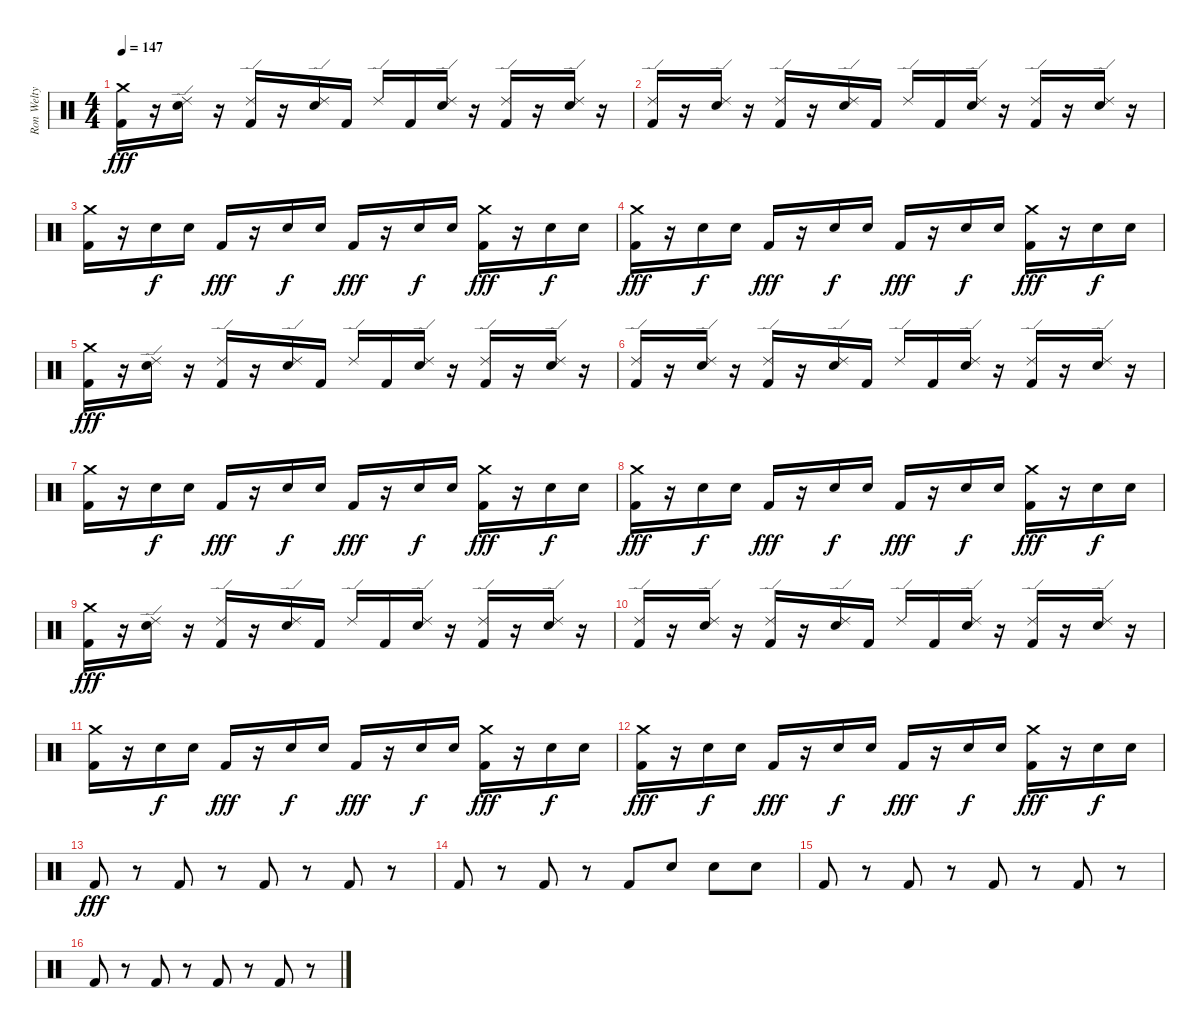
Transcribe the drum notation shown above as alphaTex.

\track ("Ron Welty" "Ron Welty") {instrument percussion}
\staff {score}
\articulation defaults
\ts (4 4)
\tempo 147
\clef neutral
\ks c
("Kick (hit) 2" "Crash medium (hit)").16{dy fff} r.16 ("Snare (hit) 2" "Ride (edge) 2").16 r.16 ("Kick (hit) 2" "Ride (edge) 2").16 r.16 ("Snare (hit) 2" "Ride (edge) 2").16 "Kick (hit) 2".16 "Ride (edge) 2".16 "Kick (hit) 2".16 ("Snare (hit) 2" "Ride (edge) 2").16 r.16 ("Kick (hit) 2" "Ride (edge) 2").16 r.16 ("Snare (hit) 2" "Ride (edge) 2").16 r.16 |
("Kick (hit) 2" "Ride (edge) 2").16 r.16 ("Snare (hit) 2" "Ride (edge) 2").16 r.16 ("Kick (hit) 2" "Ride (edge) 2").16 r.16 ("Snare (hit) 2" "Ride (edge) 2").16 "Kick (hit) 2".16 "Ride (edge) 2".16 "Kick (hit) 2".16 ("Snare (hit) 2" "Ride (edge) 2").16 r.16 ("Kick (hit) 2" "Ride (edge) 2").16 r.16 ("Snare (hit) 2" "Ride (edge) 2").16 r.16 |
("Kick (hit) 2" "Crash medium (hit)").16 r.16 "Snare (hit) 2".16{dy f} "Snare (hit) 2".16 "Kick (hit) 2".16{dy fff} r.16 "Snare (hit) 2".16{dy f} "Snare (hit) 2".16 "Kick (hit) 2".16{dy fff} r.16 "Snare (hit) 2".16{dy f} "Snare (hit) 2".16 ("Kick (hit) 2" "Crash medium (hit)").16{dy fff} r.16 "Snare (hit) 2".16{dy f} "Snare (hit) 2".16 |
("Kick (hit) 2" "Crash medium (hit)").16{dy fff} r.16 "Snare (hit) 2".16{dy f} "Snare (hit) 2".16 "Kick (hit) 2".16{dy fff} r.16 "Snare (hit) 2".16{dy f} "Snare (hit) 2".16 "Kick (hit) 2".16{dy fff} r.16 "Snare (hit) 2".16{dy f} "Snare (hit) 2".16 ("Kick (hit) 2" "Crash medium (hit)").16{dy fff} r.16 "Snare (hit) 2".16{dy f} "Snare (hit) 2".16 |
("Kick (hit) 2" "Crash medium (hit)").16{dy fff} r.16 ("Snare (hit) 2" "Ride (edge) 2").16 r.16 ("Kick (hit) 2" "Ride (edge) 2").16 r.16 ("Snare (hit) 2" "Ride (edge) 2").16 "Kick (hit) 2".16 "Ride (edge) 2".16 "Kick (hit) 2".16 ("Snare (hit) 2" "Ride (edge) 2").16 r.16 ("Kick (hit) 2" "Ride (edge) 2").16 r.16 ("Snare (hit) 2" "Ride (edge) 2").16 r.16 |
("Kick (hit) 2" "Ride (edge) 2").16 r.16 ("Snare (hit) 2" "Ride (edge) 2").16 r.16 ("Kick (hit) 2" "Ride (edge) 2").16 r.16 ("Snare (hit) 2" "Ride (edge) 2").16 "Kick (hit) 2".16 "Ride (edge) 2".16 "Kick (hit) 2".16 ("Snare (hit) 2" "Ride (edge) 2").16 r.16 ("Kick (hit) 2" "Ride (edge) 2").16 r.16 ("Snare (hit) 2" "Ride (edge) 2").16 r.16 |
("Kick (hit) 2" "Crash medium (hit)").16 r.16 "Snare (hit) 2".16{dy f} "Snare (hit) 2".16 "Kick (hit) 2".16{dy fff} r.16 "Snare (hit) 2".16{dy f} "Snare (hit) 2".16 "Kick (hit) 2".16{dy fff} r.16 "Snare (hit) 2".16{dy f} "Snare (hit) 2".16 ("Kick (hit) 2" "Crash medium (hit)").16{dy fff} r.16 "Snare (hit) 2".16{dy f} "Snare (hit) 2".16 |
("Kick (hit) 2" "Crash medium (hit)").16{dy fff} r.16 "Snare (hit) 2".16{dy f} "Snare (hit) 2".16 "Kick (hit) 2".16{dy fff} r.16 "Snare (hit) 2".16{dy f} "Snare (hit) 2".16 "Kick (hit) 2".16{dy fff} r.16 "Snare (hit) 2".16{dy f} "Snare (hit) 2".16 ("Kick (hit) 2" "Crash medium (hit)").16{dy fff} r.16 "Snare (hit) 2".16{dy f} "Snare (hit) 2".16 |
("Kick (hit) 2" "Crash medium (hit)").16{dy fff} r.16 ("Snare (hit) 2" "Ride (edge) 2").16 r.16 ("Kick (hit) 2" "Ride (edge) 2").16 r.16 ("Snare (hit) 2" "Ride (edge) 2").16 "Kick (hit) 2".16 "Ride (edge) 2".16 "Kick (hit) 2".16 ("Snare (hit) 2" "Ride (edge) 2").16 r.16 ("Kick (hit) 2" "Ride (edge) 2").16 r.16 ("Snare (hit) 2" "Ride (edge) 2").16 r.16 |
("Kick (hit) 2" "Ride (edge) 2").16 r.16 ("Snare (hit) 2" "Ride (edge) 2").16 r.16 ("Kick (hit) 2" "Ride (edge) 2").16 r.16 ("Snare (hit) 2" "Ride (edge) 2").16 "Kick (hit) 2".16 "Ride (edge) 2".16 "Kick (hit) 2".16 ("Snare (hit) 2" "Ride (edge) 2").16 r.16 ("Kick (hit) 2" "Ride (edge) 2").16 r.16 ("Snare (hit) 2" "Ride (edge) 2").16 r.16 |
("Kick (hit) 2" "Crash medium (hit)").16 r.16 "Snare (hit) 2".16{dy f} "Snare (hit) 2".16 "Kick (hit) 2".16{dy fff} r.16 "Snare (hit) 2".16{dy f} "Snare (hit) 2".16 "Kick (hit) 2".16{dy fff} r.16 "Snare (hit) 2".16{dy f} "Snare (hit) 2".16 ("Kick (hit) 2" "Crash medium (hit)").16{dy fff} r.16 "Snare (hit) 2".16{dy f} "Snare (hit) 2".16 |
("Kick (hit) 2" "Crash medium (hit)").16{dy fff} r.16 "Snare (hit) 2".16{dy f} "Snare (hit) 2".16 "Kick (hit) 2".16{dy fff} r.16 "Snare (hit) 2".16{dy f} "Snare (hit) 2".16 "Kick (hit) 2".16{dy fff} r.16 "Snare (hit) 2".16{dy f} "Snare (hit) 2".16 ("Kick (hit) 2" "Crash medium (hit)").16{dy fff} r.16 "Snare (hit) 2".16{dy f} "Snare (hit) 2".16 |
"Kick (hit) 2".8{dy fff} r.8 "Kick (hit) 2".8 r.8 "Kick (hit) 2".8 r.8 "Kick (hit) 2".8 r.8 |
"Kick (hit) 2".8 r.8 "Kick (hit) 2".8 r.8 "Kick (hit) 2".8 "Snare (hit) 2".8 "Snare (hit) 2".8 "Snare (hit) 2".8 |
"Kick (hit) 2".8 r.8 "Kick (hit) 2".8 r.8 "Kick (hit) 2".8 r.8 "Kick (hit) 2".8 r.8 |
"Kick (hit) 2".8 r.8 "Kick (hit) 2".8 r.8 "Kick (hit) 2".8 r.8 "Kick (hit) 2".8 r.8
